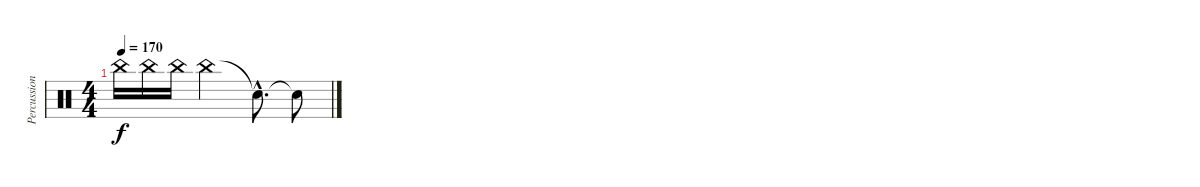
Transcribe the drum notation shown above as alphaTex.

\track ("Percussion" "Percussion") {instrument percussion}
\staff {score}
\articulation defaults
\ts (4 4)
\tempo 170
\clef neutral
\ks c "China (hit)".16{dy f} "China (hit)".16 "China (hit)".16 "China (hit)".2 "Snare (hit)"{hac t}.8{d} "Snare (hit)"{t}.8
